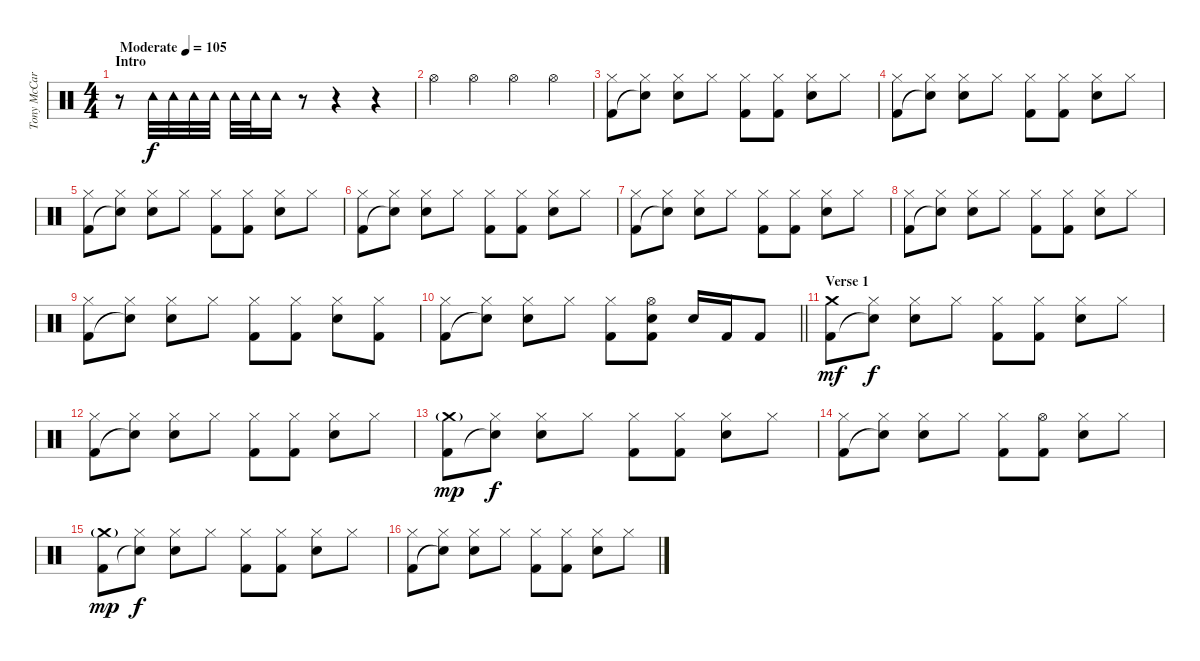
\track ("Tony McCaroll" "Tony McCar") {instrument percussion}
\staff {score}
\articulation defaults
\ts (4 4)
\section ("" "Intro")
\tempo (105 "Moderate")
\clef neutral
\ks c
r.8{dy f} "Tambourine (hit)".32 "Tambourine (hit)".32 "Tambourine (hit)".32 "Tambourine (hit)".32 "Tambourine (hit)".32 "Tambourine (hit)".32 "Tambourine (hit)".16 r.8 r.4 r.4 |
"Hi-Hat (open)".4 "Hi-Hat (open)".4 "Hi-Hat (open)".4 "Hi-Hat (open)".4 |
("Hi-Hat (closed)" "Kick (hit) 2").8 ("Hi-Hat (closed)" "Snare (hit)"{t}).8 ("Hi-Hat (closed)" "Snare (hit) 2").8 "Hi-Hat (closed)".8 ("Hi-Hat (closed)" "Kick (hit) 2").8 ("Hi-Hat (closed)" "Kick (hit) 2").8 ("Hi-Hat (closed)" "Snare (hit) 2").8 "Hi-Hat (closed)".8 |
("Hi-Hat (closed)" "Kick (hit) 2").8 ("Hi-Hat (closed)" "Snare (hit)"{t}).8 ("Hi-Hat (closed)" "Snare (hit) 2").8 "Hi-Hat (closed)".8 ("Hi-Hat (closed)" "Kick (hit) 2").8 ("Hi-Hat (closed)" "Kick (hit) 2").8 ("Hi-Hat (closed)" "Snare (hit) 2").8 "Hi-Hat (closed)".8 |
("Hi-Hat (closed)" "Kick (hit) 2").8 ("Hi-Hat (closed)" "Snare (hit)"{t}).8 ("Hi-Hat (closed)" "Snare (hit) 2").8 "Hi-Hat (closed)".8 ("Hi-Hat (closed)" "Kick (hit) 2").8 ("Hi-Hat (closed)" "Kick (hit) 2").8 ("Hi-Hat (closed)" "Snare (hit) 2").8 "Hi-Hat (closed)".8 |
("Hi-Hat (closed)" "Kick (hit) 2").8 ("Hi-Hat (closed)" "Snare (hit)"{t}).8 ("Hi-Hat (closed)" "Snare (hit) 2").8 "Hi-Hat (closed)".8 ("Hi-Hat (closed)" "Kick (hit) 2").8 ("Hi-Hat (closed)" "Kick (hit) 2").8 ("Hi-Hat (closed)" "Snare (hit) 2").8 "Hi-Hat (closed)".8 |
("Hi-Hat (closed)" "Kick (hit) 2").8 ("Hi-Hat (closed)" "Snare (hit)"{t}).8 ("Hi-Hat (closed)" "Snare (hit) 2").8 "Hi-Hat (closed)".8 ("Hi-Hat (closed)" "Kick (hit) 2").8 ("Hi-Hat (closed)" "Kick (hit) 2").8 ("Hi-Hat (closed)" "Snare (hit) 2").8 "Hi-Hat (closed)".8 |
("Hi-Hat (closed)" "Kick (hit) 2").8 ("Hi-Hat (closed)" "Snare (hit)"{t}).8 ("Hi-Hat (closed)" "Snare (hit) 2").8 "Hi-Hat (closed)".8 ("Hi-Hat (closed)" "Kick (hit) 2").8 ("Hi-Hat (closed)" "Kick (hit) 2").8 ("Hi-Hat (closed)" "Snare (hit) 2").8 "Hi-Hat (closed)".8 |
("Hi-Hat (closed)" "Kick (hit) 2").8 ("Hi-Hat (closed)" "Snare (hit)"{t}).8 ("Hi-Hat (closed)" "Snare (hit) 2").8 "Hi-Hat (closed)".8 ("Hi-Hat (closed)" "Kick (hit) 2").8 ("Hi-Hat (closed)" "Kick (hit) 2").8 ("Hi-Hat (closed)" "Snare (hit) 2").8 ("Hi-Hat (closed)" "Kick (hit) 2").8 |
\barLineRight lightlight
("Hi-Hat (closed)" "Kick (hit) 2").8 ("Hi-Hat (closed)" "Snare (hit)"{t}).8 ("Hi-Hat (closed)" "Snare (hit) 2").8 "Hi-Hat (closed)".8 ("Hi-Hat (closed)" "Kick (hit) 2").8 ("Hi-Hat (open)" "Snare (hit) 2" "Kick (hit) 2").8 "Snare (hit) 2".16 "Kick (hit) 2".16 "Kick (hit) 2".8 |
\section ("" "Verse 1")
("Crash medium (hit)" "Kick (hit) 2").8{dy mf} ("Hi-Hat (closed)" "Snare (hit)"{t}).8{dy f} ("Hi-Hat (closed)" "Snare (hit) 2").8 "Hi-Hat (closed)".8 ("Hi-Hat (closed)" "Kick (hit) 2").8 ("Hi-Hat (closed)" "Kick (hit) 2").8 ("Hi-Hat (closed)" "Snare (hit) 2").8 "Hi-Hat (closed)".8 |
("Hi-Hat (closed)" "Kick (hit) 2").8 ("Hi-Hat (closed)" "Snare (hit)"{t}).8 ("Hi-Hat (closed)" "Snare (hit) 2").8 "Hi-Hat (closed)".8 ("Hi-Hat (closed)" "Kick (hit) 2").8 ("Hi-Hat (closed)" "Kick (hit) 2").8 ("Hi-Hat (closed)" "Snare (hit) 2").8 "Hi-Hat (closed)".8 |
("Crash medium (hit)"{g} "Kick (hit) 2").8{dy mp} ("Hi-Hat (closed)" "Snare (hit)"{t}).8{dy f} ("Hi-Hat (closed)" "Snare (hit) 2").8 "Hi-Hat (closed)".8 ("Hi-Hat (closed)" "Kick (hit) 2").8 ("Hi-Hat (closed)" "Kick (hit) 2").8 ("Hi-Hat (closed)" "Snare (hit) 2").8 "Hi-Hat (closed)".8 |
("Hi-Hat (closed)" "Kick (hit) 2").8 ("Hi-Hat (closed)" "Snare (hit)"{t}).8 ("Hi-Hat (closed)" "Snare (hit) 2").8 "Hi-Hat (closed)".8 ("Hi-Hat (closed)" "Kick (hit) 2").8 ("Hi-Hat (open)" "Kick (hit) 2").8 ("Hi-Hat (closed)" "Snare (hit) 2").8 "Hi-Hat (closed)".8 |
("Crash medium (hit)"{g} "Kick (hit) 2").8{dy mp} ("Hi-Hat (closed)" "Snare (hit)"{t}).8{dy f} ("Hi-Hat (closed)" "Snare (hit) 2").8 "Hi-Hat (closed)".8 ("Hi-Hat (closed)" "Kick (hit) 2").8 ("Hi-Hat (closed)" "Kick (hit) 2").8 ("Hi-Hat (closed)" "Snare (hit) 2").8 "Hi-Hat (closed)".8 |
("Hi-Hat (closed)" "Kick (hit) 2").8 ("Hi-Hat (closed)" "Snare (hit)"{t}).8 ("Hi-Hat (closed)" "Snare (hit) 2").8 "Hi-Hat (closed)".8 ("Hi-Hat (closed)" "Kick (hit) 2").8 ("Hi-Hat (closed)" "Kick (hit) 2").8 ("Hi-Hat (closed)" "Snare (hit) 2").8 "Hi-Hat (closed)".8
